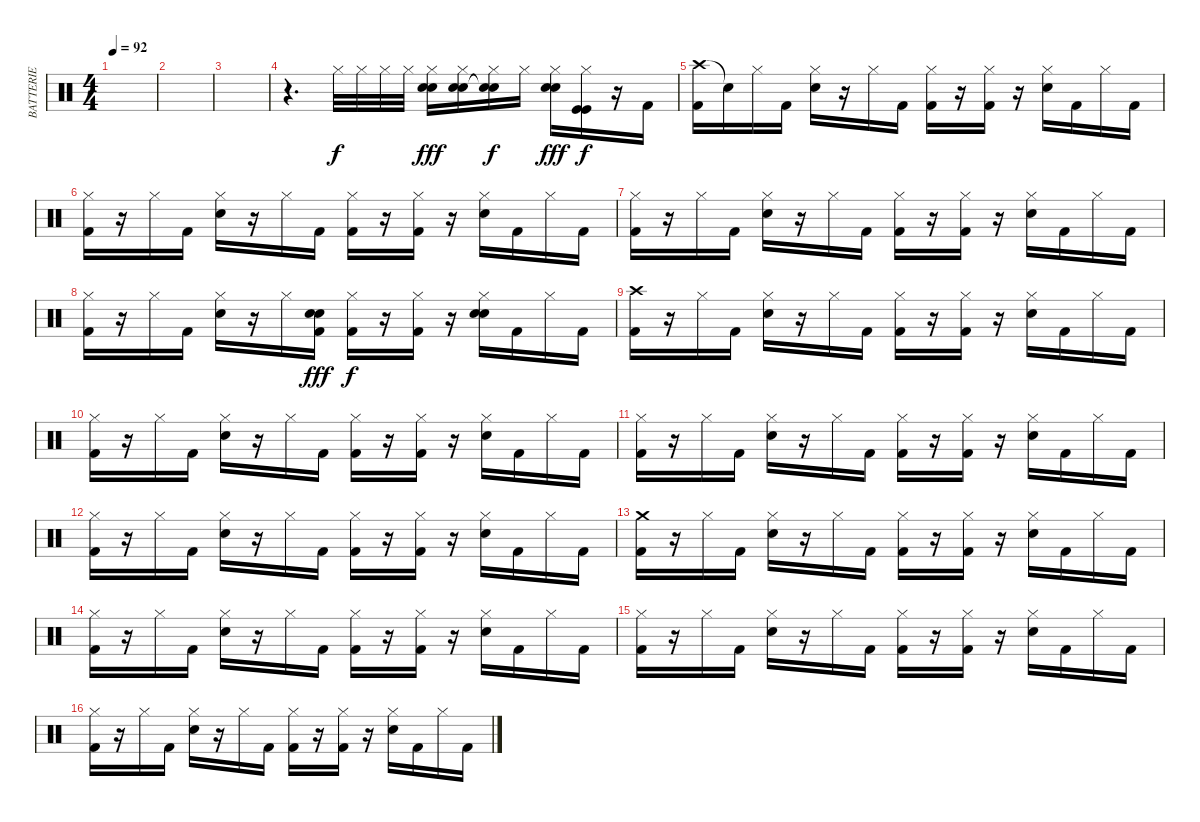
\track ("BATTERIE" "BATTERIE") {instrument percussion}
\staff {score}
\articulation defaults
\ts (4 4)
\tempo 92
\clef neutral
\ks c
|
|
|
r.4{d} "Hi-Hat (closed)".32 "Hi-Hat (closed)".32 "Hi-Hat (closed)".32 "Hi-Hat (closed)".32 ("Hi-Hat (closed)" "Snare (hit) 2" "Snare (hit) 2").16{dy fff} ("Hi-Hat (closed)" "Electric Snare (hit)" "Electric Snare (hit)").16 ("Hi-Hat (closed)" "Snare (hit)"{t} "Snare (hit)"{t}).16{dy f} "Hi-Hat (closed)".16 ("Hi-Hat (closed)" "Snare (hit) 2" "Snare (hit) 2").16{dy fff} ("Hi-Hat (closed)" "Kick (hit)" "Kick (hit)").16{dy f} r.16 "Kick (hit) 2".16 |
("Crash high (hit)" "Kick (hit) 2").16 "Snare (hit)"{t}.16 "Hi-Hat (closed)".16 "Kick (hit) 2".16 ("Hi-Hat (closed)" "Snare (hit) 2").16 r.16 "Hi-Hat (closed)".16 "Kick (hit) 2".16 ("Hi-Hat (closed)" "Kick (hit) 2").16 r.16 ("Hi-Hat (closed)" "Kick (hit) 2").16 r.16 ("Hi-Hat (closed)" "Snare (hit) 2").16 "Kick (hit) 2".16 "Hi-Hat (closed)".16 "Kick (hit) 2".16 |
("Hi-Hat (closed)" "Kick (hit) 2").16 r.16 "Hi-Hat (closed)".16 "Kick (hit) 2".16 ("Hi-Hat (closed)" "Snare (hit) 2").16 r.16 "Hi-Hat (closed)".16 "Kick (hit) 2".16 ("Hi-Hat (closed)" "Kick (hit) 2").16 r.16 ("Hi-Hat (closed)" "Kick (hit) 2").16 r.16 ("Hi-Hat (closed)" "Snare (hit) 2").16 "Kick (hit) 2".16 "Hi-Hat (closed)".16 "Kick (hit) 2".16 |
("Hi-Hat (closed)" "Kick (hit) 2").16 r.16 "Hi-Hat (closed)".16 "Kick (hit) 2".16 ("Hi-Hat (closed)" "Snare (hit) 2").16 r.16 "Hi-Hat (closed)".16 "Kick (hit) 2".16 ("Hi-Hat (closed)" "Kick (hit) 2").16 r.16 ("Hi-Hat (closed)" "Kick (hit) 2").16 r.16 ("Hi-Hat (closed)" "Snare (hit) 2").16 "Kick (hit) 2".16 "Hi-Hat (closed)".16 "Kick (hit) 2".16 |
("Hi-Hat (closed)" "Kick (hit) 2").16 r.16 "Hi-Hat (closed)".16 "Kick (hit) 2".16 ("Hi-Hat (closed)" "Snare (hit) 2").16 r.16 "Hi-Hat (closed)".16 ("Electric Snare (hit)" "Electric Snare (hit)" "Kick (hit) 2").16{dy fff} ("Hi-Hat (closed)" "Kick (hit) 2").16{dy f} r.16 ("Hi-Hat (closed)" "Kick (hit) 2").16 r.16 ("Hi-Hat (closed)" "Electric Snare (hit)" "Electric Snare (hit)").16 "Kick (hit) 2".16 "Hi-Hat (closed)".16 "Kick (hit) 2".16 |
("Crash high (hit)" "Kick (hit) 2").16 r.16 "Hi-Hat (closed)".16 "Kick (hit) 2".16 ("Hi-Hat (closed)" "Snare (hit) 2").16 r.16 "Hi-Hat (closed)".16 "Kick (hit) 2".16 ("Hi-Hat (closed)" "Kick (hit) 2").16 r.16 ("Hi-Hat (closed)" "Kick (hit) 2").16 r.16 ("Hi-Hat (closed)" "Snare (hit) 2").16 "Kick (hit) 2".16 "Hi-Hat (closed)".16 "Kick (hit) 2".16 |
("Hi-Hat (closed)" "Kick (hit) 2").16 r.16 "Hi-Hat (closed)".16 "Kick (hit) 2".16 ("Hi-Hat (closed)" "Snare (hit) 2").16 r.16 "Hi-Hat (closed)".16 "Kick (hit) 2".16 ("Hi-Hat (closed)" "Kick (hit) 2").16 r.16 ("Hi-Hat (closed)" "Kick (hit) 2").16 r.16 ("Hi-Hat (closed)" "Snare (hit) 2").16 "Kick (hit) 2".16 "Hi-Hat (closed)".16 "Kick (hit) 2".16 |
("Hi-Hat (closed)" "Kick (hit) 2").16 r.16 "Hi-Hat (closed)".16 "Kick (hit) 2".16 ("Hi-Hat (closed)" "Snare (hit) 2").16 r.16 "Hi-Hat (closed)".16 "Kick (hit) 2".16 ("Hi-Hat (closed)" "Kick (hit) 2").16 r.16 ("Hi-Hat (closed)" "Kick (hit) 2").16 r.16 ("Hi-Hat (closed)" "Snare (hit) 2").16 "Kick (hit) 2".16 "Hi-Hat (closed)".16 "Kick (hit) 2".16 |
("Hi-Hat (closed)" "Kick (hit) 2").16 r.16 "Hi-Hat (closed)".16 "Kick (hit) 2".16 ("Hi-Hat (closed)" "Snare (hit) 2").16 r.16 "Hi-Hat (closed)".16 "Kick (hit) 2".16 ("Hi-Hat (closed)" "Kick (hit) 2").16 r.16 ("Hi-Hat (closed)" "Kick (hit) 2").16 r.16 ("Hi-Hat (closed)" "Snare (hit) 2").16 "Kick (hit) 2".16 "Hi-Hat (closed)".16 "Kick (hit) 2".16 |
("Crash medium (hit)" "Kick (hit) 2").16 r.16 "Hi-Hat (closed)".16 "Kick (hit) 2".16 ("Hi-Hat (closed)" "Snare (hit) 2").16 r.16 "Hi-Hat (closed)".16 "Kick (hit) 2".16 ("Hi-Hat (closed)" "Kick (hit) 2").16 r.16 ("Hi-Hat (closed)" "Kick (hit) 2").16 r.16 ("Hi-Hat (closed)" "Snare (hit) 2").16 "Kick (hit) 2".16 "Hi-Hat (closed)".16 "Kick (hit) 2".16 |
("Hi-Hat (closed)" "Kick (hit) 2").16 r.16 "Hi-Hat (closed)".16 "Kick (hit) 2".16 ("Hi-Hat (closed)" "Snare (hit) 2").16 r.16 "Hi-Hat (closed)".16 "Kick (hit) 2".16 ("Hi-Hat (closed)" "Kick (hit) 2").16 r.16 ("Hi-Hat (closed)" "Kick (hit) 2").16 r.16 ("Hi-Hat (closed)" "Snare (hit) 2").16 "Kick (hit) 2".16 "Hi-Hat (closed)".16 "Kick (hit) 2".16 |
("Hi-Hat (closed)" "Kick (hit) 2").16 r.16 "Hi-Hat (closed)".16 "Kick (hit) 2".16 ("Hi-Hat (closed)" "Snare (hit) 2").16 r.16 "Hi-Hat (closed)".16 "Kick (hit) 2".16 ("Hi-Hat (closed)" "Kick (hit) 2").16 r.16 ("Hi-Hat (closed)" "Kick (hit) 2").16 r.16 ("Hi-Hat (closed)" "Snare (hit) 2").16 "Kick (hit) 2".16 "Hi-Hat (closed)".16 "Kick (hit) 2".16 |
("Hi-Hat (closed)" "Kick (hit) 2").16 r.16 "Hi-Hat (closed)".16 "Kick (hit) 2".16 ("Hi-Hat (closed)" "Snare (hit) 2").16 r.16 "Hi-Hat (closed)".16 "Kick (hit) 2".16 ("Hi-Hat (closed)" "Kick (hit) 2").16 r.16 ("Hi-Hat (closed)" "Kick (hit) 2").16 r.16 ("Hi-Hat (closed)" "Snare (hit) 2").16 "Kick (hit) 2".16 "Hi-Hat (closed)".16 "Kick (hit) 2".16
